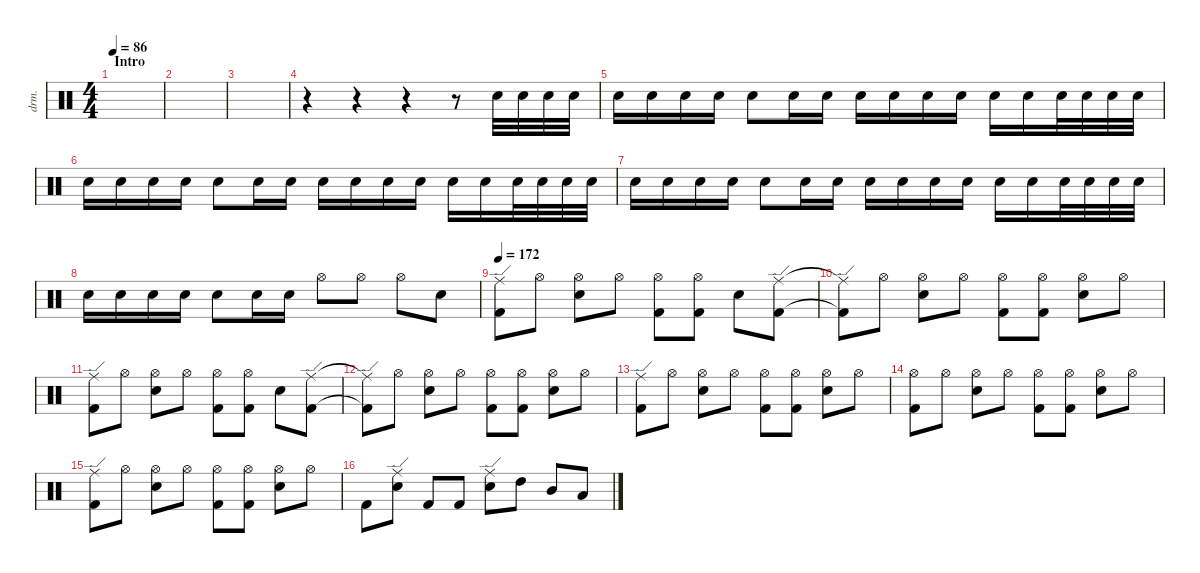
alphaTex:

\defaultSystemsLayout 4
\hideDynamics
\bracketExtendMode nobrackets
\track ("Drums" "drm.") {solo instrument percussion}
\staff {score}
\articulation defaults
\ts (4 4)
\section ("" "Intro")
\tempo 86
\clef neutral
\ks c
|
|
|
r.4{beam Down} r.4{beam Down} r.4{beam Down} r.8{beam Down} "Snare (hit) 2".32{beam Down} "Snare (hit) 2".32{beam Down} "Snare (hit) 2".32{beam Down} "Snare (hit) 2".32{beam Down} |
"Snare (hit) 2".16{dy p beam Down} "Snare (hit) 2".16{beam Down} "Snare (hit) 2".16{beam Down} "Snare (hit) 2".16{beam Down} "Snare (hit) 2".8{dy mf beam Down} "Snare (hit) 2".16{dy p beam Down} "Snare (hit) 2".16{beam Down} "Snare (hit) 2".16{beam Down} "Snare (hit) 2".16{dy mf beam Down} "Snare (hit) 2".16{dy p beam Down} "Snare (hit) 2".16{beam Down} "Snare (hit) 2".16{dy mf beam Down} "Snare (hit) 2".16{dy p beam Down} "Snare (hit) 2".32{dy mp beam Down} "Snare (hit) 2".32{beam Down} "Snare (hit) 2".32{beam Down} "Snare (hit) 2".32{beam Down} |
"Snare (hit) 2".16{dy p beam Down} "Snare (hit) 2".16{beam Down} "Snare (hit) 2".16{beam Down} "Snare (hit) 2".16{beam Down} "Snare (hit) 2".8{dy mf beam Down} "Snare (hit) 2".16{dy p beam Down} "Snare (hit) 2".16{beam Down} "Snare (hit) 2".16{beam Down} "Snare (hit) 2".16{dy mf beam Down} "Snare (hit) 2".16{dy p beam Down} "Snare (hit) 2".16{beam Down} "Snare (hit) 2".16{dy mf beam Down} "Snare (hit) 2".16{dy p beam Down} "Snare (hit) 2".32{dy mp beam Down} "Snare (hit) 2".32{beam Down} "Snare (hit) 2".32{beam Down} "Snare (hit) 2".32{beam Down} |
"Snare (hit) 2".16{dy p beam Down} "Snare (hit) 2".16{beam Down} "Snare (hit) 2".16{beam Down} "Snare (hit) 2".16{beam Down} "Snare (hit) 2".8{dy mf beam Down} "Snare (hit) 2".16{dy p beam Down} "Snare (hit) 2".16{beam Down} "Snare (hit) 2".16{beam Down} "Snare (hit) 2".16{dy mf beam Down} "Snare (hit) 2".16{dy p beam Down} "Snare (hit) 2".16{beam Down} "Snare (hit) 2".16{dy mf beam Down} "Snare (hit) 2".16{dy p beam Down} "Snare (hit) 2".32{dy mp beam Down} "Snare (hit) 2".32{beam Down} "Snare (hit) 2".32{beam Down} "Snare (hit) 2".32{beam Down} |
"Snare (hit) 2".16{dy p beam Down} "Snare (hit) 2".16{beam Down} "Snare (hit) 2".16{beam Down} "Snare (hit) 2".16{beam Down} "Snare (hit) 2".8{dy mf beam Down} "Snare (hit) 2".16{dy p beam Down} "Snare (hit) 2".16{beam Down} "Hi-Hat (open)".8{dy mf beam Down} "Hi-Hat (open)".8{beam Down} "Hi-Hat (open)".8{beam Down} "Snare (hit) 2".8{beam Down} |
\tempo 172
("Kick (hit) 2" "Ride (edge)").8{dy ff beam Down} "Hi-Hat (open)".8{dy mf beam Down} ("Snare (hit) 2" "Hi-Hat (open)").8{beam Down} "Hi-Hat (open)".8{beam Down} ("Kick (hit) 2" "Hi-Hat (open)").8{beam Down} ("Kick (hit) 2" "Hi-Hat (open)").8{beam Down} "Snare (hit) 2".8{beam Down} ("Ride (edge)" "Kick (hit) 2").8{dy ff beam Down} |
("Ride (edge)"{t} "Kick (hit) 2"{t}).8{dy mf beam Down} "Hi-Hat (open)".8{beam Down} ("Hi-Hat (open)" "Snare (hit) 2").8{beam Down} "Hi-Hat (open)".8{beam Down} ("Hi-Hat (open)" "Kick (hit) 2").8{beam Down} ("Hi-Hat (open)" "Kick (hit) 2").8{beam Down} ("Hi-Hat (open)" "Snare (hit) 2").8{beam Down} "Hi-Hat (open)".8{beam Down} |
("Ride (edge)" "Kick (hit) 2").8{dy ff beam Down} "Hi-Hat (open)".8{dy mf beam Down} ("Hi-Hat (open)" "Snare (hit) 2").8{beam Down} "Hi-Hat (open)".8{beam Down} ("Hi-Hat (open)" "Kick (hit) 2").8{beam Down} ("Hi-Hat (open)" "Kick (hit) 2").8{beam Down} "Snare (hit) 2".8{dy ff beam Down} ("Ride (edge)" "Kick (hit) 2").8{beam Down} |
("Ride (edge)"{t} "Kick (hit) 2"{t}).8{dy mf beam Down} "Hi-Hat (open)".8{beam Down} ("Hi-Hat (open)" "Snare (hit) 2").8{beam Down} "Hi-Hat (open)".8{beam Down} ("Hi-Hat (open)" "Kick (hit) 2").8{beam Down} ("Hi-Hat (open)" "Kick (hit) 2").8{beam Down} ("Hi-Hat (open)" "Snare (hit) 2").8{beam Down} "Hi-Hat (open)".8{beam Down} |
("Ride (edge)" "Kick (hit) 2").8{dy ff beam Down} "Hi-Hat (open)".8{dy mf beam Down} ("Hi-Hat (open)" "Snare (hit) 2").8{beam Down} "Hi-Hat (open)".8{beam Down} ("Hi-Hat (open)" "Kick (hit) 2").8{beam Down} ("Hi-Hat (open)" "Kick (hit) 2").8{beam Down} ("Hi-Hat (open)" "Snare (hit) 2").8{beam Down} "Hi-Hat (open)".8{beam Down} |
("Hi-Hat (open)" "Kick (hit) 2").8{beam Down} "Hi-Hat (open)".8{beam Down} ("Hi-Hat (open)" "Snare (hit) 2").8{beam Down} "Hi-Hat (open)".8{beam Down} ("Hi-Hat (open)" "Kick (hit) 2").8{beam Down} ("Hi-Hat (open)" "Kick (hit) 2").8{beam Down} ("Hi-Hat (open)" "Snare (hit) 2").8{beam Down} "Hi-Hat (open)".8{beam Down} |
("Ride (edge)" "Kick (hit) 2").8{dy ff beam Down} "Hi-Hat (open)".8{dy mf beam Down} ("Hi-Hat (open)" "Snare (hit) 2").8{beam Down} "Hi-Hat (open)".8{beam Down} ("Hi-Hat (open)" "Kick (hit) 2").8{beam Down} ("Hi-Hat (open)" "Kick (hit) 2").8{beam Down} ("Hi-Hat (open)" "Snare (hit) 2").8{beam Down} "Hi-Hat (open)".8{beam Down} |
"Kick (hit) 2".8{beam Down} ("Ride (edge)" "Snare (hit) 2").8{dy ff beam Down} "Kick (hit) 2".8{dy mf beam Up} "Kick (hit) 2".8{beam Up} ("Ride (edge)" "Snare (hit) 2").8{dy ff beam Down} "High Tom (hit)".8{dy mf beam Down} "Mid Tom (hit)".8{beam Up} "Low Tom (hit)".8{beam Up}
